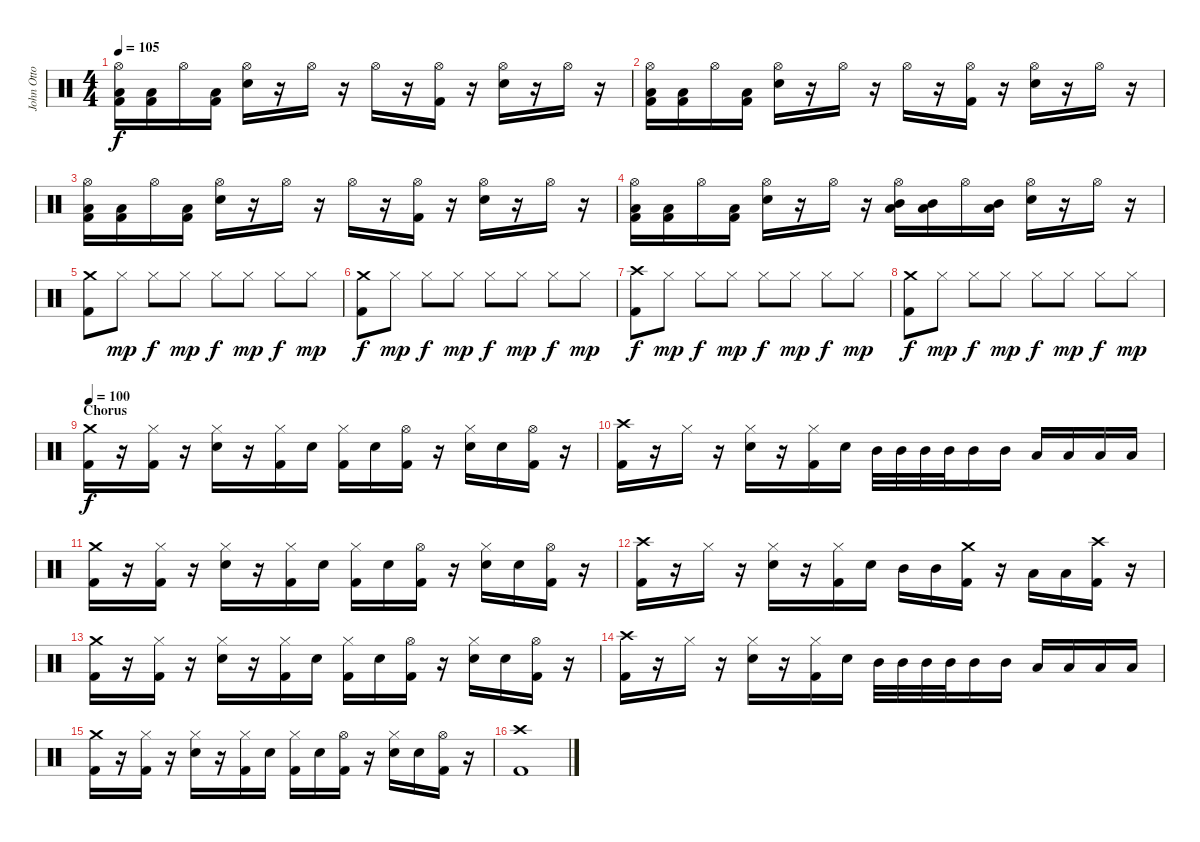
\track ("John Otto - Drums" "John Otto ") {instrument percussion}
\staff {score}
\articulation defaults
\ts (4 4)
\tempo 105
\clef neutral
\ks c
("Hi-Hat (open)" "Low Tom (hit)" "Kick (hit) 2").16{dy f} ("Low Tom (hit)" "Kick (hit) 2").16 "Hi-Hat (open)".16 ("Low Tom (hit)" "Kick (hit) 2").16 ("Hi-Hat (open)" "Electric Snare (hit)").16 r.16 "Hi-Hat (open)".16 r.16 "Hi-Hat (open)".16 r.16 ("Hi-Hat (open)" "Kick (hit) 2").16 r.16 ("Hi-Hat (open)" "Electric Snare (hit)").16 r.16 "Hi-Hat (open)".16 r.16 |
("Hi-Hat (open)" "Low Tom (hit)" "Kick (hit) 2").16 ("Low Tom (hit)" "Kick (hit) 2").16 "Hi-Hat (open)".16 ("Low Tom (hit)" "Kick (hit) 2").16 ("Hi-Hat (open)" "Electric Snare (hit)").16 r.16 "Hi-Hat (open)".16 r.16 "Hi-Hat (open)".16 r.16 ("Hi-Hat (open)" "Kick (hit) 2").16 r.16 ("Hi-Hat (open)" "Electric Snare (hit)").16 r.16 "Hi-Hat (open)".16 r.16 |
("Hi-Hat (open)" "Low Tom (hit)" "Kick (hit) 2").16 ("Low Tom (hit)" "Kick (hit) 2").16 "Hi-Hat (open)".16 ("Low Tom (hit)" "Kick (hit) 2").16 ("Hi-Hat (open)" "Electric Snare (hit)").16 r.16 "Hi-Hat (open)".16 r.16 "Hi-Hat (open)".16 r.16 ("Hi-Hat (open)" "Kick (hit) 2").16 r.16 ("Hi-Hat (open)" "Electric Snare (hit)").16 r.16 "Hi-Hat (open)".16 r.16 |
("Hi-Hat (open)" "Low Tom (hit)" "Kick (hit) 2").16 ("Low Tom (hit)" "Kick (hit) 2").16 "Hi-Hat (open)".16 ("Low Tom (hit)" "Kick (hit) 2").16 ("Hi-Hat (open)" "Electric Snare (hit)").16 r.16 "Hi-Hat (open)".16 r.16 ("Hi-Hat (open)" "Mid Tom (hit)" "Low Tom (hit)").16 ("Mid Tom (hit)" "Low Tom (hit)").16 "Hi-Hat (open)".16 ("Mid Tom (hit)" "Low Tom (hit)").16 ("Hi-Hat (open)" "Electric Snare (hit)").16 r.16 "Hi-Hat (open)".16 r.16 |
("Crash medium (hit)" "Kick (hit) 2").8 "Hi-Hat (closed)".8{dy mp} "Hi-Hat (closed)".8{dy f} "Hi-Hat (closed)".8{dy mp} "Hi-Hat (closed)".8{dy f} "Hi-Hat (closed)".8{dy mp} "Hi-Hat (closed)".8{dy f} "Hi-Hat (closed)".8{dy mp} |
("Crash medium (hit)" "Kick (hit) 2").8{dy f} "Hi-Hat (closed)".8{dy mp} "Hi-Hat (closed)".8{dy f} "Hi-Hat (closed)".8{dy mp} "Hi-Hat (closed)".8{dy f} "Hi-Hat (closed)".8{dy mp} "Hi-Hat (closed)".8{dy f} "Hi-Hat (closed)".8{dy mp} |
("Crash high (hit)" "Kick (hit) 2").8{dy f} "Hi-Hat (closed)".8{dy mp} "Hi-Hat (closed)".8{dy f} "Hi-Hat (closed)".8{dy mp} "Hi-Hat (closed)".8{dy f} "Hi-Hat (closed)".8{dy mp} "Hi-Hat (closed)".8{dy f} "Hi-Hat (closed)".8{dy mp} |
("Crash medium (hit)" "Kick (hit) 2").8{dy f} "Hi-Hat (closed)".8{dy mp} "Hi-Hat (closed)".8{dy f} "Hi-Hat (closed)".8{dy mp} "Hi-Hat (closed)".8{dy f} "Hi-Hat (closed)".8{dy mp} "Hi-Hat (closed)".8{dy f} "Hi-Hat (closed)".8{dy mp} |
\section ("" "Chorus")
\tempo 100
("Crash medium (hit)" "Kick (hit) 2").16{dy f} r.16 ("Hi-Hat (closed)" "Kick (hit) 2").16 r.16 ("Hi-Hat (closed)" "Electric Snare (hit)").16 r.16 ("Hi-Hat (closed)" "Kick (hit) 2").16 "Electric Snare (hit)".16 ("Hi-Hat (closed)" "Kick (hit) 2").16 "Electric Snare (hit)".16 ("Hi-Hat (open)" "Kick (hit) 2").16 r.16 ("Hi-Hat (closed)" "Electric Snare (hit)").16 "Electric Snare (hit)".16 ("Hi-Hat (open)" "Kick (hit) 2").16 r.16 |
("Crash high (hit)" "Kick (hit) 2").16 r.16 "Hi-Hat (closed)".16 r.16 ("Hi-Hat (closed)" "Electric Snare (hit)").16 r.16 ("Hi-Hat (closed)" "Kick (hit) 2").16 "Electric Snare (hit)".16 "Mid Tom (hit)".32 "Mid Tom (hit)".32 "Mid Tom (hit)".32 "Mid Tom (hit)".32 "Mid Tom (hit)".16 "Mid Tom (hit)".16 "Low Tom (hit)".16 "Low Tom (hit)".16 "Low Tom (hit)".16 "Low Tom (hit)".16 |
("Crash medium (hit)" "Kick (hit) 2").16 r.16 ("Hi-Hat (closed)" "Kick (hit) 2").16 r.16 ("Hi-Hat (closed)" "Electric Snare (hit)").16 r.16 ("Hi-Hat (closed)" "Kick (hit) 2").16 "Electric Snare (hit)".16 ("Hi-Hat (closed)" "Kick (hit) 2").16 "Electric Snare (hit)".16 ("Hi-Hat (open)" "Kick (hit) 2").16 r.16 ("Hi-Hat (closed)" "Electric Snare (hit)").16 "Electric Snare (hit)".16 ("Hi-Hat (open)" "Kick (hit) 2").16 r.16 |
("Crash high (hit)" "Kick (hit) 2").16 r.16 "Hi-Hat (closed)".16 r.16 ("Hi-Hat (closed)" "Electric Snare (hit)").16 r.16 ("Hi-Hat (closed)" "Kick (hit) 2").16 "Electric Snare (hit)".16 "Mid Tom (hit)".16 "Mid Tom (hit)".16 ("Crash medium (hit)" "Kick (hit) 2").16 r.16 "Low Tom (hit)".16 "Low Tom (hit)".16 ("Crash high (hit)" "Kick (hit) 2").16 r.16 |
("Crash medium (hit)" "Kick (hit) 2").16 r.16 ("Hi-Hat (closed)" "Kick (hit) 2").16 r.16 ("Hi-Hat (closed)" "Electric Snare (hit)").16 r.16 ("Hi-Hat (closed)" "Kick (hit) 2").16 "Electric Snare (hit)".16 ("Hi-Hat (closed)" "Kick (hit) 2").16 "Electric Snare (hit)".16 ("Hi-Hat (open)" "Kick (hit) 2").16 r.16 ("Hi-Hat (closed)" "Electric Snare (hit)").16 "Electric Snare (hit)".16 ("Hi-Hat (open)" "Kick (hit) 2").16 r.16 |
("Crash high (hit)" "Kick (hit) 2").16 r.16 "Hi-Hat (closed)".16 r.16 ("Hi-Hat (closed)" "Electric Snare (hit)").16 r.16 ("Hi-Hat (closed)" "Kick (hit) 2").16 "Electric Snare (hit)".16 "Mid Tom (hit)".32 "Mid Tom (hit)".32 "Mid Tom (hit)".32 "Mid Tom (hit)".32 "Mid Tom (hit)".16 "Mid Tom (hit)".16 "Low Tom (hit)".16 "Low Tom (hit)".16 "Low Tom (hit)".16 "Low Tom (hit)".16 |
("Crash medium (hit)" "Kick (hit) 2").16 r.16 ("Hi-Hat (closed)" "Kick (hit) 2").16 r.16 ("Hi-Hat (closed)" "Electric Snare (hit)").16 r.16 ("Hi-Hat (closed)" "Kick (hit) 2").16 "Electric Snare (hit)".16 ("Hi-Hat (closed)" "Kick (hit) 2").16 "Electric Snare (hit)".16 ("Hi-Hat (open)" "Kick (hit) 2").16 r.16 ("Hi-Hat (closed)" "Electric Snare (hit)").16 "Electric Snare (hit)".16 ("Hi-Hat (open)" "Kick (hit) 2").16 r.16 |
("Crash high (hit)" "Kick (hit) 2").1
